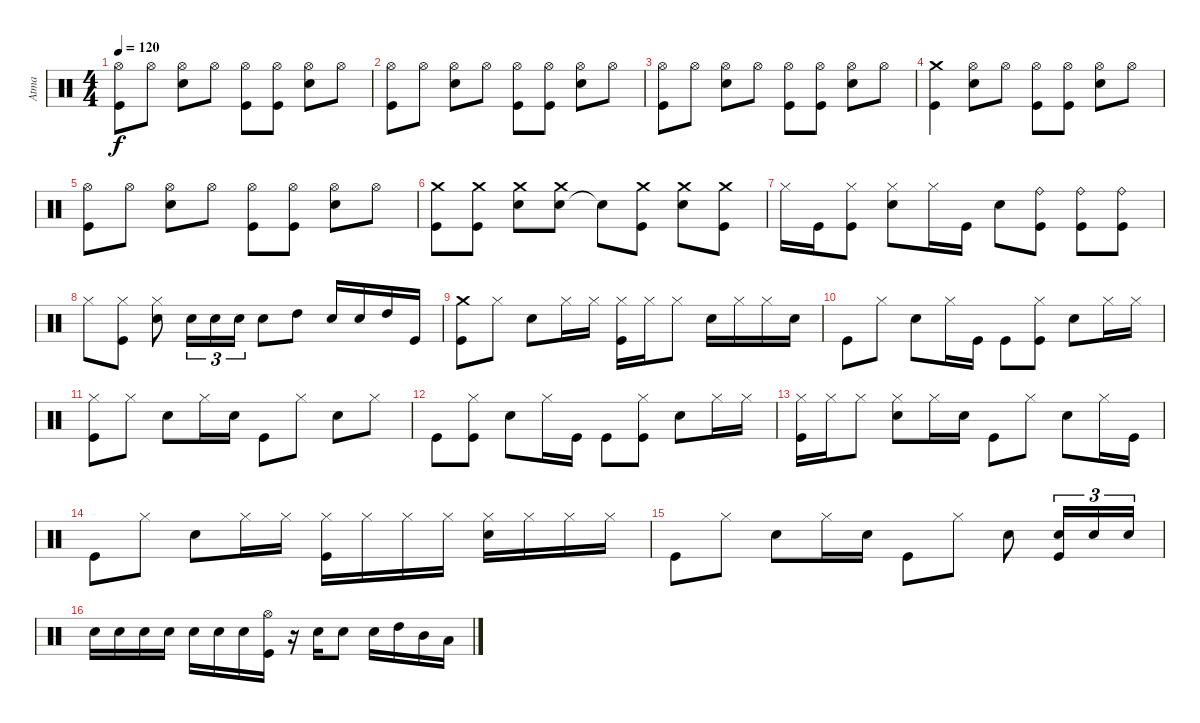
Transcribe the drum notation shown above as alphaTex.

\track ("Atma" "Atma") {instrument percussion}
\staff {score}
\articulation defaults
\ts (4 4)
\tempo 120
\clef neutral
\ks c
("Kick (hit)" "Hi-Hat (open)").8{dy f} "Hi-Hat (open)".8 ("Snare (hit) 2" "Hi-Hat (open)").8 "Hi-Hat (open)".8 ("Kick (hit)" "Hi-Hat (open)").8 ("Kick (hit)" "Hi-Hat (open)").8 ("Snare (hit) 2" "Hi-Hat (open)").8 "Hi-Hat (open)".8 |
("Kick (hit)" "Hi-Hat (open)").8 "Hi-Hat (open)".8 ("Snare (hit) 2" "Hi-Hat (open)").8 "Hi-Hat (open)".8 ("Kick (hit)" "Hi-Hat (open)").8 ("Kick (hit)" "Hi-Hat (open)").8 ("Snare (hit) 2" "Hi-Hat (open)").8 "Hi-Hat (open)".8 |
("Kick (hit)" "Hi-Hat (open)").8 "Hi-Hat (open)".8 ("Snare (hit) 2" "Hi-Hat (open)").8 "Hi-Hat (open)".8 ("Kick (hit)" "Hi-Hat (open)").8 ("Kick (hit)" "Hi-Hat (open)").8 ("Snare (hit) 2" "Hi-Hat (open)").8 "Hi-Hat (open)".8 |
("Kick (hit)" "Crash medium (hit)").4 ("Snare (hit) 2" "Hi-Hat (open)").8 "Hi-Hat (open)".8 ("Kick (hit)" "Hi-Hat (open)").8 ("Kick (hit)" "Hi-Hat (open)").8 ("Snare (hit) 2" "Hi-Hat (open)").8 "Hi-Hat (open)".8 |
("Kick (hit)" "Hi-Hat (open)").8 "Hi-Hat (open)".8 ("Snare (hit) 2" "Hi-Hat (open)").8 "Hi-Hat (open)".8 ("Kick (hit)" "Hi-Hat (open)").8 ("Kick (hit)" "Hi-Hat (open)").8 ("Snare (hit) 2" "Hi-Hat (open)").8 "Hi-Hat (open)".8 |
("Kick (hit)" "Crash medium (hit)").8 ("Kick (hit)" "Crash medium (hit)").8 ("Snare (hit) 2" "Crash medium (hit)").8 ("Snare (hit) 2" "Crash medium (hit)").8 "Snare (hit)"{t}.8 ("Kick (hit)" "Crash medium (hit)").8 ("Snare (hit) 2" "Crash medium (hit)").8 ("Kick (hit)" "Crash medium (hit)").8 |
"Hi-Hat (closed)".16 "Kick (hit)".16 ("Kick (hit)" "Hi-Hat (closed)").8 ("Snare (hit) 2" "Hi-Hat (closed)").8 "Hi-Hat (closed)".16 "Kick (hit)".16 "Snare (hit) 2".8 ("Kick (hit)" "Ride (bell)").8 ("Kick (hit)" "Ride (bell)").8 ("Kick (hit)" "Ride (bell)").8 |
"Hi-Hat (closed)".8 ("Kick (hit)" "Hi-Hat (closed)").8 ("Snare (hit) 2" "Hi-Hat (closed)").8 "Snare (hit) 2".16{tu (3 2)} "Snare (hit) 2".16{tu (3 2)} "Snare (hit) 2".16{tu (3 2)} "Snare (hit) 2".8 "High Tom (hit)".8 "Snare (hit) 2".16 "Snare (hit) 2".16 "High Tom (hit)".16 "Kick (hit)".16 |
("Kick (hit)" "Crash medium (hit)").8 "Hi-Hat (closed)".8 "Snare (hit) 2".8 "Hi-Hat (closed)".16 "Hi-Hat (closed)".16 ("Kick (hit)" "Hi-Hat (closed)").16 "Hi-Hat (closed)".16 "Hi-Hat (closed)".8 "Snare (hit) 2".16 "Hi-Hat (closed)".16 "Hi-Hat (closed)".16 "Snare (hit) 2".16 |
"Kick (hit)".8 "Hi-Hat (closed)".8 "Snare (hit) 2".8 "Hi-Hat (closed)".16 "Kick (hit)".16 "Kick (hit)".8 ("Kick (hit)" "Hi-Hat (closed)").8 "Snare (hit) 2".8 "Hi-Hat (closed)".16 "Hi-Hat (closed)".16 |
("Kick (hit)" "Hi-Hat (closed)").8 "Hi-Hat (closed)".8 "Snare (hit) 2".8 "Hi-Hat (closed)".16 "Snare (hit) 2".16 "Kick (hit)".8 "Hi-Hat (closed)".8 "Snare (hit) 2".8 "Hi-Hat (closed)".8 |
"Kick (hit)".8 ("Kick (hit)" "Hi-Hat (closed)").8 "Snare (hit) 2".8 "Hi-Hat (closed)".16 "Kick (hit)".16 "Kick (hit)".8 ("Kick (hit)" "Hi-Hat (closed)").8 "Snare (hit) 2".8 "Hi-Hat (closed)".16 "Hi-Hat (closed)".16 |
("Kick (hit)" "Hi-Hat (closed)").16 "Hi-Hat (closed)".16 "Hi-Hat (closed)".8 ("Snare (hit) 2" "Hi-Hat (closed)").8 "Hi-Hat (closed)".16 "Snare (hit) 2".16 "Kick (hit)".8 "Hi-Hat (closed)".8 "Snare (hit) 2".8 "Hi-Hat (closed)".16 "Kick (hit)".16 |
"Kick (hit)".8 "Hi-Hat (closed)".8 "Snare (hit) 2".8 "Hi-Hat (closed)".16 "Hi-Hat (closed)".16 ("Kick (hit)" "Hi-Hat (closed)").16 "Hi-Hat (closed)".16 "Hi-Hat (closed)".16 "Hi-Hat (closed)".16 ("Snare (hit) 2" "Hi-Hat (closed)").16 "Hi-Hat (closed)".16 "Hi-Hat (closed)".16 "Hi-Hat (closed)".16 |
"Kick (hit)".8 "Hi-Hat (closed)".8 "Snare (hit) 2".8 "Hi-Hat (closed)".16 "Snare (hit) 2".16 "Kick (hit)".8 "Hi-Hat (closed)".8 "Snare (hit) 2".8 ("Kick (hit)" "Snare (hit) 2").16{tu (3 2)} "Snare (hit) 2".16{tu (3 2)} "Snare (hit) 2".16{tu (3 2)} |
"Snare (hit) 2".16 "Snare (hit) 2".16 "Snare (hit) 2".16 "Snare (hit) 2".16 "Snare (hit) 2".16 "Snare (hit) 2".16 "Snare (hit) 2".16 ("Kick (hit)" "Hi-Hat (open)").16 r.16 "Snare (hit) 2".16 "Snare (hit) 2".8 "Snare (hit) 2".16 "High Tom (hit)".16 "Mid Tom (hit)".16 "Low Tom (hit)".16
